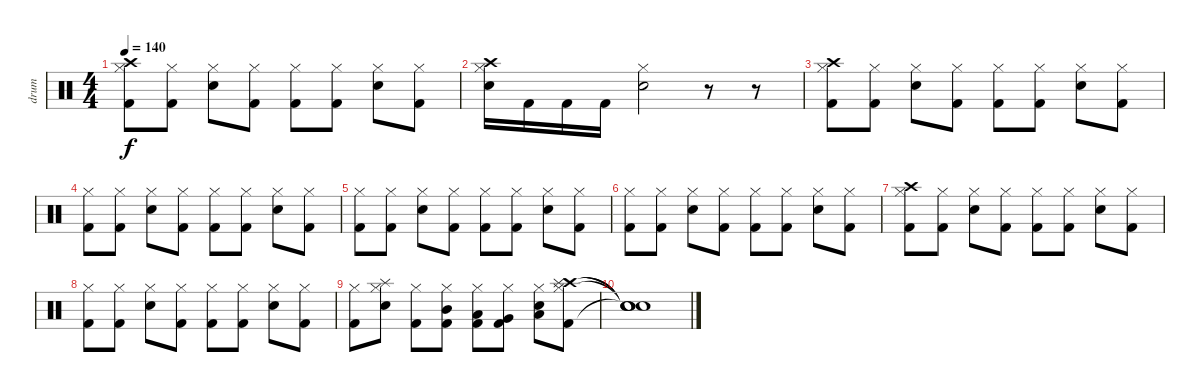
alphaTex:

\track ("drum" "drum") {instrument percussion}
\staff {score}
\articulation defaults
\ts (4 4)
\tempo 140
\clef neutral
\ks c
("Crash high (hit)" "Hi-Hat (closed)" "Kick (hit) 2").8{dy f} ("Hi-Hat (closed)" "Kick (hit) 2").8 ("Hi-Hat (closed)" "Electric Snare (hit)").8 ("Hi-Hat (closed)" "Kick (hit) 2").8 ("Hi-Hat (closed)" "Kick (hit) 2").8 ("Hi-Hat (closed)" "Kick (hit) 2").8 ("Hi-Hat (closed)" "Electric Snare (hit)").8 ("Hi-Hat (closed)" "Kick (hit) 2").8 |
("Crash high (hit)" "Hi-Hat (closed)" "Electric Snare (hit)").16 "Kick (hit) 2".16 "Kick (hit) 2".16 "Kick (hit) 2".16 ("Hi-Hat (closed)" "Electric Snare (hit)").2 r.8 r.8 |
("Crash high (hit)" "Hi-Hat (closed)" "Kick (hit) 2").8 ("Hi-Hat (closed)" "Kick (hit) 2").8 ("Hi-Hat (closed)" "Electric Snare (hit)").8 ("Hi-Hat (closed)" "Kick (hit) 2").8 ("Hi-Hat (closed)" "Kick (hit) 2").8 ("Hi-Hat (closed)" "Kick (hit) 2").8 ("Hi-Hat (closed)" "Electric Snare (hit)").8 ("Hi-Hat (closed)" "Kick (hit) 2").8 |
("Hi-Hat (closed)" "Kick (hit) 2").8 ("Hi-Hat (closed)" "Kick (hit) 2").8 ("Hi-Hat (closed)" "Electric Snare (hit)").8 ("Hi-Hat (closed)" "Kick (hit) 2").8 ("Hi-Hat (closed)" "Kick (hit) 2").8 ("Hi-Hat (closed)" "Kick (hit) 2").8 ("Hi-Hat (closed)" "Electric Snare (hit)").8 ("Hi-Hat (closed)" "Kick (hit) 2").8 |
("Hi-Hat (closed)" "Kick (hit) 2").8 ("Hi-Hat (closed)" "Kick (hit) 2").8 ("Hi-Hat (closed)" "Electric Snare (hit)").8 ("Hi-Hat (closed)" "Kick (hit) 2").8 ("Hi-Hat (closed)" "Kick (hit) 2").8 ("Hi-Hat (closed)" "Kick (hit) 2").8 ("Hi-Hat (closed)" "Electric Snare (hit)").8 ("Hi-Hat (closed)" "Kick (hit) 2").8 |
("Hi-Hat (closed)" "Kick (hit) 2").8 ("Hi-Hat (closed)" "Kick (hit) 2").8 ("Hi-Hat (closed)" "Electric Snare (hit)").8 ("Hi-Hat (closed)" "Kick (hit) 2").8 ("Hi-Hat (closed)" "Kick (hit) 2").8 ("Hi-Hat (closed)" "Kick (hit) 2").8 ("Hi-Hat (closed)" "Electric Snare (hit)").8 ("Hi-Hat (closed)" "Kick (hit) 2").8 |
("Crash high (hit)" "Hi-Hat (closed)" "Kick (hit) 2").8 ("Hi-Hat (closed)" "Kick (hit) 2").8 ("Hi-Hat (closed)" "Electric Snare (hit)").8 ("Hi-Hat (closed)" "Kick (hit) 2").8 ("Hi-Hat (closed)" "Kick (hit) 2").8 ("Hi-Hat (closed)" "Kick (hit) 2").8 ("Hi-Hat (closed)" "Electric Snare (hit)").8 ("Hi-Hat (closed)" "Kick (hit) 2").8 |
("Hi-Hat (closed)" "Kick (hit) 2").8 ("Hi-Hat (closed)" "Kick (hit) 2").8 ("Hi-Hat (closed)" "Electric Snare (hit)").8 ("Hi-Hat (closed)" "Kick (hit) 2").8 ("Hi-Hat (closed)" "Kick (hit) 2").8 ("Hi-Hat (closed)" "Kick (hit) 2").8 ("Hi-Hat (closed)" "Electric Snare (hit)").8 ("Hi-Hat (closed)" "Kick (hit) 2").8 |
("Hi-Hat (closed)" "Kick (hit) 2").8 ("Splash (hit)" "Hi-Hat (closed)" "Electric Snare (hit)").8 ("Hi-Hat (closed)" "Kick (hit) 2").8 ("Mid Tom (hit)" "Hi-Hat (closed)" "Kick (hit) 2").8 ("Low Tom (hit)" "Hi-Hat (closed)" "Kick (hit) 2").8 ("Very Low Tom (hit)" "Hi-Hat (closed)" "Kick (hit) 2").8 ("Low Floor Tom (hit)" "Hi-Hat (closed)" "Electric Snare (hit)").8 ("Crash high (hit)" "Splash (hit)" "Hi-Hat (closed)" "Kick (hit) 2").8 |
("Snare (hit)"{t} "Snare (hit)"{t} "Snare (hit)"{t} "Snare (hit)"{t}).1
